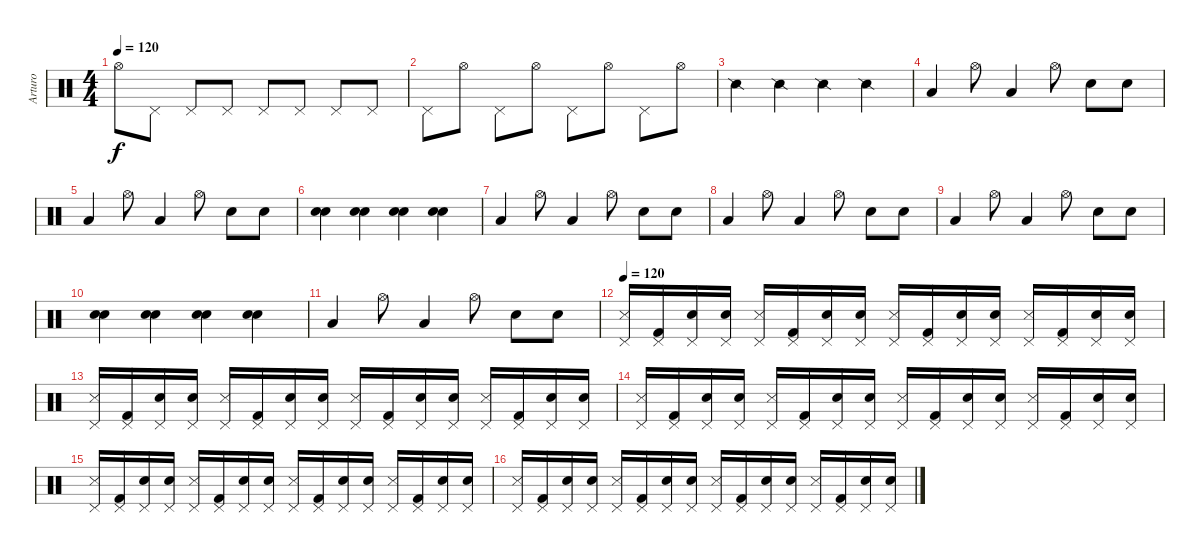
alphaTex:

\track ("Arturo" "Arturo") {instrument percussion}
\staff {score}
\articulation defaults
\ts (4 4)
\tempo 120
\clef neutral
\ks c "Hi-Hat (open)".8{dy f} "Pedal Hi-Hat (hit)".8 "Pedal Hi-Hat (hit)".8 "Pedal Hi-Hat (hit)".8 "Pedal Hi-Hat (hit)".8 "Pedal Hi-Hat (hit)".8 "Pedal Hi-Hat (hit)".8 "Pedal Hi-Hat (hit)".8
|
"Pedal Hi-Hat (hit)".8 "Hi-Hat (open)".8 "Pedal Hi-Hat (hit)".8 "Hi-Hat (open)".8 "Pedal Hi-Hat (hit)".8 "Hi-Hat (open)".8 "Pedal Hi-Hat (hit)".8 "Hi-Hat (open)".8 |
"Snare (side stick) 2".4 "Snare (side stick) 2".4 "Snare (side stick) 2".4 "Snare (side stick) 2".4 |
"Low Tom (hit)".4 "Hi-Hat (open)".8 "Low Tom (hit)".4 "Hi-Hat (open)".8 "Electric Snare (hit)".8 "Electric Snare (hit)".8 |
"Low Tom (hit)".4 "Hi-Hat (open)".8 "Low Tom (hit)".4 "Hi-Hat (open)".8 "Electric Snare (hit)".8 "Electric Snare (hit)".8 |
("Snare (hit) 2" "Electric Snare (hit)").4 ("Electric Snare (hit)" "Snare (hit) 2").4 ("Snare (hit) 2" "Electric Snare (hit)").4 ("Electric Snare (hit)" "Snare (hit) 2").4 |
"Low Tom (hit)".4 "Hi-Hat (open)".8 "Low Tom (hit)".4 "Hi-Hat (open)".8 "Electric Snare (hit)".8 "Electric Snare (hit)".8 |
"Low Tom (hit)".4 "Hi-Hat (open)".8 "Low Tom (hit)".4 "Hi-Hat (open)".8 "Electric Snare (hit)".8 "Electric Snare (hit)".8 |
"Low Tom (hit)".4 "Hi-Hat (open)".8 "Low Tom (hit)".4 "Hi-Hat (open)".8 "Electric Snare (hit)".8 "Electric Snare (hit)".8 |
("Snare (hit) 2" "Electric Snare (hit)").4 ("Electric Snare (hit)" "Snare (hit) 2").4 ("Snare (hit) 2" "Electric Snare (hit)").4 ("Electric Snare (hit)" "Snare (hit) 2").4 |
"Low Tom (hit)".4 "Hi-Hat (open)".8 "Low Tom (hit)".4 "Hi-Hat (open)".8 "Electric Snare (hit)".8 "Electric Snare (hit)".8 |
\tempo 120
("Pedal Hi-Hat (hit)" "Snare (side stick) 3").16 ("Pedal Hi-Hat (hit)" "Kick (hit) 2").16 ("Pedal Hi-Hat (hit)" "Electric Snare (hit)").16 ("Pedal Hi-Hat (hit)" "Electric Snare (hit)").16 ("Pedal Hi-Hat (hit)" "Snare (side stick) 3").16 ("Pedal Hi-Hat (hit)" "Kick (hit) 2").16 ("Pedal Hi-Hat (hit)" "Electric Snare (hit)").16 ("Pedal Hi-Hat (hit)" "Electric Snare (hit)").16 ("Pedal Hi-Hat (hit)" "Snare (side stick) 3").16 ("Pedal Hi-Hat (hit)" "Kick (hit) 2").16 ("Pedal Hi-Hat (hit)" "Electric Snare (hit)").16 ("Pedal Hi-Hat (hit)" "Electric Snare (hit)").16 ("Pedal Hi-Hat (hit)" "Snare (side stick) 3").16 ("Pedal Hi-Hat (hit)" "Kick (hit) 2").16 ("Pedal Hi-Hat (hit)" "Electric Snare (hit)").16 ("Pedal Hi-Hat (hit)" "Electric Snare (hit)").16 |
("Pedal Hi-Hat (hit)" "Snare (side stick) 3").16 ("Pedal Hi-Hat (hit)" "Kick (hit) 2").16 ("Pedal Hi-Hat (hit)" "Electric Snare (hit)").16 ("Pedal Hi-Hat (hit)" "Electric Snare (hit)").16 ("Pedal Hi-Hat (hit)" "Snare (side stick) 3").16 ("Pedal Hi-Hat (hit)" "Kick (hit) 2").16 ("Pedal Hi-Hat (hit)" "Electric Snare (hit)").16 ("Pedal Hi-Hat (hit)" "Electric Snare (hit)").16 ("Pedal Hi-Hat (hit)" "Snare (side stick) 3").16 ("Pedal Hi-Hat (hit)" "Kick (hit) 2").16 ("Pedal Hi-Hat (hit)" "Electric Snare (hit)").16 ("Pedal Hi-Hat (hit)" "Electric Snare (hit)").16 ("Pedal Hi-Hat (hit)" "Snare (side stick) 3").16 ("Pedal Hi-Hat (hit)" "Kick (hit) 2").16 ("Pedal Hi-Hat (hit)" "Electric Snare (hit)").16 ("Pedal Hi-Hat (hit)" "Electric Snare (hit)").16 |
("Pedal Hi-Hat (hit)" "Snare (side stick) 3").16 ("Pedal Hi-Hat (hit)" "Kick (hit) 2").16 ("Pedal Hi-Hat (hit)" "Electric Snare (hit)").16 ("Pedal Hi-Hat (hit)" "Electric Snare (hit)").16 ("Pedal Hi-Hat (hit)" "Snare (side stick) 3").16 ("Pedal Hi-Hat (hit)" "Kick (hit) 2").16 ("Pedal Hi-Hat (hit)" "Electric Snare (hit)").16 ("Pedal Hi-Hat (hit)" "Electric Snare (hit)").16 ("Pedal Hi-Hat (hit)" "Snare (side stick) 3").16 ("Pedal Hi-Hat (hit)" "Kick (hit) 2").16 ("Pedal Hi-Hat (hit)" "Electric Snare (hit)").16 ("Pedal Hi-Hat (hit)" "Electric Snare (hit)").16 ("Pedal Hi-Hat (hit)" "Snare (side stick) 3").16 ("Pedal Hi-Hat (hit)" "Kick (hit) 2").16 ("Pedal Hi-Hat (hit)" "Electric Snare (hit)").16 ("Pedal Hi-Hat (hit)" "Electric Snare (hit)").16 |
("Pedal Hi-Hat (hit)" "Snare (side stick) 3").16 ("Pedal Hi-Hat (hit)" "Kick (hit) 2").16 ("Pedal Hi-Hat (hit)" "Electric Snare (hit)").16 ("Pedal Hi-Hat (hit)" "Electric Snare (hit)").16 ("Pedal Hi-Hat (hit)" "Snare (side stick) 3").16 ("Pedal Hi-Hat (hit)" "Kick (hit) 2").16 ("Pedal Hi-Hat (hit)" "Electric Snare (hit)").16 ("Pedal Hi-Hat (hit)" "Electric Snare (hit)").16 ("Pedal Hi-Hat (hit)" "Snare (side stick) 3").16 ("Pedal Hi-Hat (hit)" "Kick (hit) 2").16 ("Pedal Hi-Hat (hit)" "Electric Snare (hit)").16 ("Pedal Hi-Hat (hit)" "Electric Snare (hit)").16 ("Pedal Hi-Hat (hit)" "Snare (side stick) 3").16 ("Pedal Hi-Hat (hit)" "Kick (hit) 2").16 ("Pedal Hi-Hat (hit)" "Electric Snare (hit)").16 ("Pedal Hi-Hat (hit)" "Electric Snare (hit)").16 |
("Pedal Hi-Hat (hit)" "Snare (side stick) 3").16 ("Pedal Hi-Hat (hit)" "Kick (hit) 2").16 ("Pedal Hi-Hat (hit)" "Electric Snare (hit)").16 ("Pedal Hi-Hat (hit)" "Electric Snare (hit)").16 ("Pedal Hi-Hat (hit)" "Snare (side stick) 3").16 ("Pedal Hi-Hat (hit)" "Kick (hit) 2").16 ("Pedal Hi-Hat (hit)" "Electric Snare (hit)").16 ("Pedal Hi-Hat (hit)" "Electric Snare (hit)").16 ("Pedal Hi-Hat (hit)" "Snare (side stick) 3").16 ("Pedal Hi-Hat (hit)" "Kick (hit) 2").16 ("Pedal Hi-Hat (hit)" "Electric Snare (hit)").16 ("Pedal Hi-Hat (hit)" "Electric Snare (hit)").16 ("Pedal Hi-Hat (hit)" "Snare (side stick) 3").16 ("Pedal Hi-Hat (hit)" "Kick (hit) 2").16 ("Pedal Hi-Hat (hit)" "Electric Snare (hit)").16 ("Pedal Hi-Hat (hit)" "Electric Snare (hit)").16
